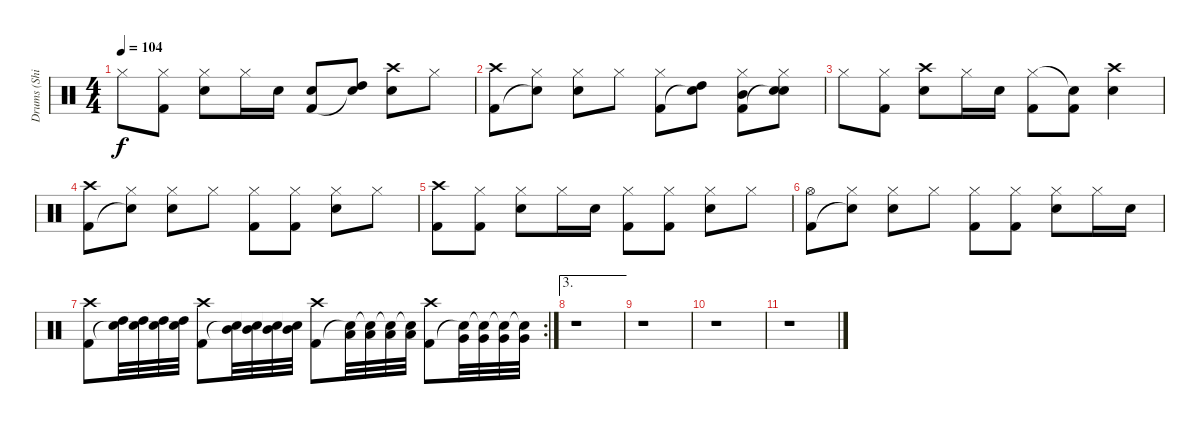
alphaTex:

\track ("Drums (Shinya)" "Drums (Shi") {instrument percussion}
\staff {score}
\articulation defaults
\ts (4 4)
\tempo 104
\clef neutral
\ks c "Hi-Hat (closed)".8{dy f}
("Hi-Hat (closed)" "Kick (hit) 2").8 ("Hi-Hat (closed)" "Electric Snare (hit)").8 "Hi-Hat (closed)".16 "Electric Snare (hit)".16 ("Electric Snare (hit)" "Kick (hit) 2").8 ("High Tom (hit)" "Snare (hit)"{t}).8 ("Crash high (hit)" "Electric Snare (hit)").8 "Hi-Hat (closed)".8 |
("Crash high (hit)" "Kick (hit) 2").8 ("Hi-Hat (closed)" "Snare (hit)"{t}).8 ("Hi-Hat (closed)" "Electric Snare (hit)").8 "Hi-Hat (closed)".8 ("Hi-Hat (closed)" "Kick (hit) 2").8 ("High Tom (hit)" "Snare (hit)"{t}).8 ("Hi-Hat (closed)" "Mid Tom (hit)" "Kick (hit) 2").8 ("Hi-Hat (closed)" "Electric Snare (hit)" "Snare (hit)"{t}).8 |
"Hi-Hat (closed)".8 ("Hi-Hat (closed)" "Kick (hit) 2").8 ("Crash high (hit)" "Electric Snare (hit)").8 "Hi-Hat (closed)".16 "Electric Snare (hit)".16 ("Hi-Hat (closed)" "Kick (hit) 2").8 ("Snare (hit)"{t} "Kick (hit) 2").8 ("Crash high (hit)" "Electric Snare (hit)").4 |
("Crash high (hit)" "Kick (hit) 2").8 ("Hi-Hat (closed)" "Snare (hit)"{t}).8 ("Hi-Hat (closed)" "Electric Snare (hit)").8 "Hi-Hat (closed)".8 ("Hi-Hat (closed)" "Kick (hit) 2").8 ("Hi-Hat (closed)" "Kick (hit) 2").8 ("Hi-Hat (closed)" "Electric Snare (hit)").8 "Hi-Hat (closed)".8 |
("Crash high (hit)" "Kick (hit) 2").8 ("Hi-Hat (closed)" "Kick (hit) 2").8 ("Hi-Hat (closed)" "Electric Snare (hit)").8 "Hi-Hat (closed)".16 "Electric Snare (hit)".16 ("Hi-Hat (closed)" "Kick (hit) 2").8 ("Hi-Hat (closed)" "Kick (hit) 2").8 ("Hi-Hat (closed)" "Electric Snare (hit)").8 "Hi-Hat (closed)".8 |
("Hi-Hat (open)" "Kick (hit) 2").8 ("Hi-Hat (closed)" "Snare (hit)"{t}).8 ("Hi-Hat (closed)" "Electric Snare (hit)").8 "Hi-Hat (closed)".8 ("Hi-Hat (closed)" "Kick (hit) 2").8 ("Hi-Hat (closed)" "Kick (hit) 2").8 ("Hi-Hat (closed)" "Electric Snare (hit)").8 "Hi-Hat (closed)".16 "Electric Snare (hit)".16 |
\rc 2
("Crash high (hit)" "Kick (hit) 2").8 ("High Tom (hit)" "Snare (hit)"{t}).32 ("High Tom (hit)" "Snare (hit)"{t}).32 ("High Tom (hit)" "Snare (hit)"{t}).32 ("High Tom (hit)" "Snare (hit)"{t}).32 ("Crash high (hit)" "Kick (hit) 2").8 ("Mid Tom (hit)" "Snare (hit)"{t}).32 ("Mid Tom (hit)" "Snare (hit)"{t}).32 ("Mid Tom (hit)" "Snare (hit)"{t}).32 ("Mid Tom (hit)" "Snare (hit)"{t}).32 ("Crash high (hit)" "Kick (hit) 2").8 ("Low Tom (hit)" "Snare (hit)"{t}).32 ("Low Tom (hit)" "Snare (hit)"{t}).32 ("Low Tom (hit)" "Snare (hit)"{t}).32 ("Low Tom (hit)" "Snare (hit)"{t}).32 ("Crash high (hit)" "Kick (hit) 2").8 ("Very Low Tom (hit)" "Snare (hit)"{t}).32 ("Very Low Tom (hit)" "Snare (hit)"{t}).32 ("Very Low Tom (hit)" "Snare (hit)"{t}).32 ("Very Low Tom (hit)" "Snare (hit)"{t}).32 |
\ae 3
r.1 |
r.1 |
r.1 |
r.1
